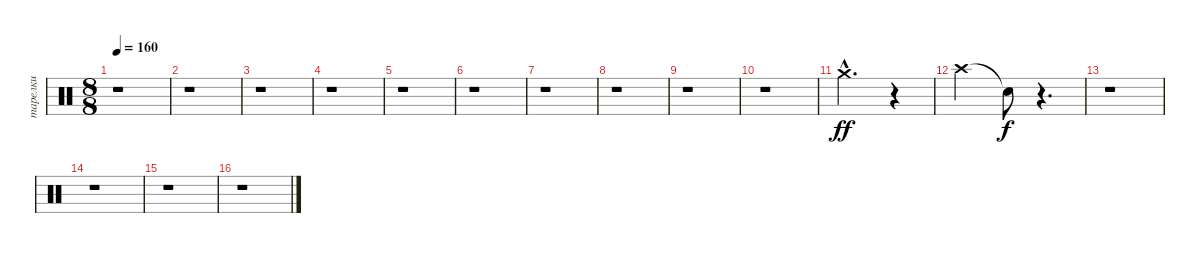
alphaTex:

\track ("тарелки" "тарелки") {instrument percussion}
\staff {score}
\articulation defaults
\ts (8 8)
\tempo 160
\clef neutral
\ks c
r.1{dy ff} |
r.1 |
r.1 |
r.1 |
r.1 |
r.1 |
r.1 |
r.1 |
r.1 |
r.1 |
"Crash medium (hit)"{hac}.2{d} r.4 |
"Crash high (hit)".2 "Snare (hit)"{t}.8{dy f} r.4{d} |
r.1 |
r.1 |
r.1 |
r.1
